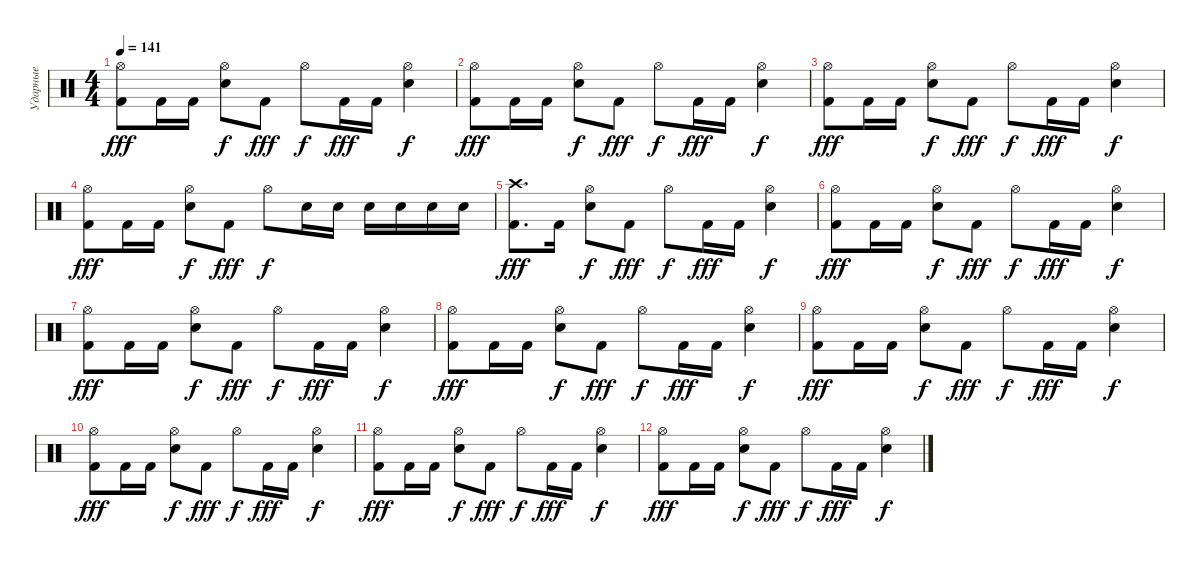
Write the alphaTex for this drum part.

\track ("Ударные" "Ударные") {instrument percussion}
\staff {score}
\articulation defaults
\ts (4 4)
\tempo 141
\clef neutral
\ks c
("Kick (hit) 2" "Hi-Hat (open)").8{dy fff} "Kick (hit) 2".16 "Kick (hit) 2".16 ("Snare (hit) 2" "Hi-Hat (open)").8{dy f} "Kick (hit) 2".8{dy fff} "Hi-Hat (open)".8{dy f} "Kick (hit) 2".16{dy fff} "Kick (hit) 2".16 ("Snare (hit) 2" "Hi-Hat (open)").4{dy f} |
("Kick (hit) 2" "Hi-Hat (open)").8{dy fff} "Kick (hit) 2".16 "Kick (hit) 2".16 ("Snare (hit) 2" "Hi-Hat (open)").8{dy f} "Kick (hit) 2".8{dy fff} "Hi-Hat (open)".8{dy f} "Kick (hit) 2".16{dy fff} "Kick (hit) 2".16 ("Snare (hit) 2" "Hi-Hat (open)").4{dy f} |
("Kick (hit) 2" "Hi-Hat (open)").8{dy fff} "Kick (hit) 2".16 "Kick (hit) 2".16 ("Snare (hit) 2" "Hi-Hat (open)").8{dy f} "Kick (hit) 2".8{dy fff} "Hi-Hat (open)".8{dy f} "Kick (hit) 2".16{dy fff} "Kick (hit) 2".16 ("Snare (hit) 2" "Hi-Hat (open)").4{dy f} |
("Kick (hit) 2" "Hi-Hat (open)").8{dy fff} "Kick (hit) 2".16 "Kick (hit) 2".16 ("Snare (hit) 2" "Hi-Hat (open)").8{dy f} "Kick (hit) 2".8{dy fff} "Hi-Hat (open)".8{dy f} "Snare (hit) 2".16 "Snare (hit) 2".16 "Snare (hit) 2".16 "Snare (hit) 2".16 "Snare (hit) 2".16 "Snare (hit) 2".16 |
("Kick (hit) 2" "Crash high (hit)").8{d dy fff} "Kick (hit) 2".16 ("Snare (hit) 2" "Hi-Hat (open)").8{dy f} "Kick (hit) 2".8{dy fff} "Hi-Hat (open)".8{dy f} "Kick (hit) 2".16{dy fff} "Kick (hit) 2".16 ("Snare (hit) 2" "Hi-Hat (open)").4{dy f} |
("Kick (hit) 2" "Hi-Hat (open)").8{dy fff} "Kick (hit) 2".16 "Kick (hit) 2".16 ("Snare (hit) 2" "Hi-Hat (open)").8{dy f} "Kick (hit) 2".8{dy fff} "Hi-Hat (open)".8{dy f} "Kick (hit) 2".16{dy fff} "Kick (hit) 2".16 ("Snare (hit) 2" "Hi-Hat (open)").4{dy f} |
("Kick (hit) 2" "Hi-Hat (open)").8{dy fff} "Kick (hit) 2".16 "Kick (hit) 2".16 ("Snare (hit) 2" "Hi-Hat (open)").8{dy f} "Kick (hit) 2".8{dy fff} "Hi-Hat (open)".8{dy f} "Kick (hit) 2".16{dy fff} "Kick (hit) 2".16 ("Snare (hit) 2" "Hi-Hat (open)").4{dy f} |
("Kick (hit) 2" "Hi-Hat (open)").8{dy fff} "Kick (hit) 2".16 "Kick (hit) 2".16 ("Snare (hit) 2" "Hi-Hat (open)").8{dy f} "Kick (hit) 2".8{dy fff} "Hi-Hat (open)".8{dy f} "Kick (hit) 2".16{dy fff} "Kick (hit) 2".16 ("Snare (hit) 2" "Hi-Hat (open)").4{dy f} |
("Kick (hit) 2" "Hi-Hat (open)").8{dy fff} "Kick (hit) 2".16 "Kick (hit) 2".16 ("Snare (hit) 2" "Hi-Hat (open)").8{dy f} "Kick (hit) 2".8{dy fff} "Hi-Hat (open)".8{dy f} "Kick (hit) 2".16{dy fff} "Kick (hit) 2".16 ("Snare (hit) 2" "Hi-Hat (open)").4{dy f} |
("Kick (hit) 2" "Hi-Hat (open)").8{dy fff} "Kick (hit) 2".16 "Kick (hit) 2".16 ("Snare (hit) 2" "Hi-Hat (open)").8{dy f} "Kick (hit) 2".8{dy fff} "Hi-Hat (open)".8{dy f} "Kick (hit) 2".16{dy fff} "Kick (hit) 2".16 ("Snare (hit) 2" "Hi-Hat (open)").4{dy f} |
("Kick (hit) 2" "Hi-Hat (open)").8{dy fff} "Kick (hit) 2".16 "Kick (hit) 2".16 ("Snare (hit) 2" "Hi-Hat (open)").8{dy f} "Kick (hit) 2".8{dy fff} "Hi-Hat (open)".8{dy f} "Kick (hit) 2".16{dy fff} "Kick (hit) 2".16 ("Snare (hit) 2" "Hi-Hat (open)").4{dy f} |
("Kick (hit) 2" "Hi-Hat (open)").8{dy fff} "Kick (hit) 2".16 "Kick (hit) 2".16 ("Snare (hit) 2" "Hi-Hat (open)").8{dy f} "Kick (hit) 2".8{dy fff} "Hi-Hat (open)".8{dy f} "Kick (hit) 2".16{dy fff} "Kick (hit) 2".16 ("Snare (hit) 2" "Hi-Hat (open)").4{dy f}
